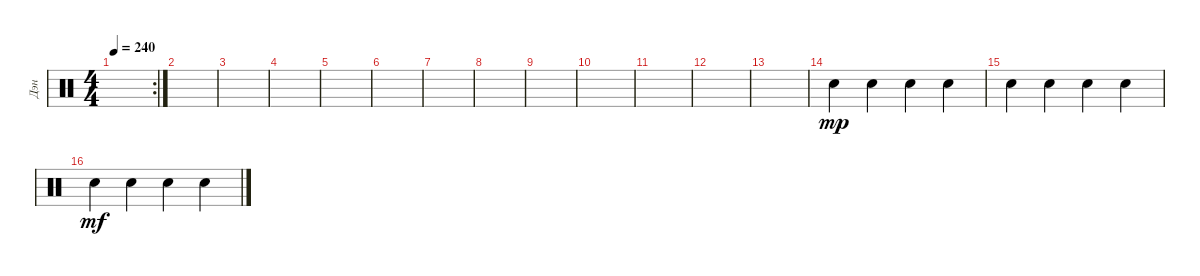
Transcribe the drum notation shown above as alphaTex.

\track ("Дэн" "Дэн") {instrument percussion}
\staff {score}
\articulation defaults
\rc 2
\ts (4 4)
\tempo 240
\clef neutral
\ks c
|
|
|
|
|
|
|
|
|
|
|
|
|
"Snare (hit) 2".4{dy mp} "Snare (hit) 2".4 "Snare (hit) 2".4 "Snare (hit) 2".4 |
"Snare (hit) 2".4 "Snare (hit) 2".4 "Snare (hit) 2".4 "Snare (hit) 2".4 |
"Snare (hit) 2".4{dy mf} "Snare (hit) 2".4 "Snare (hit) 2".4 "Snare (hit) 2".4
